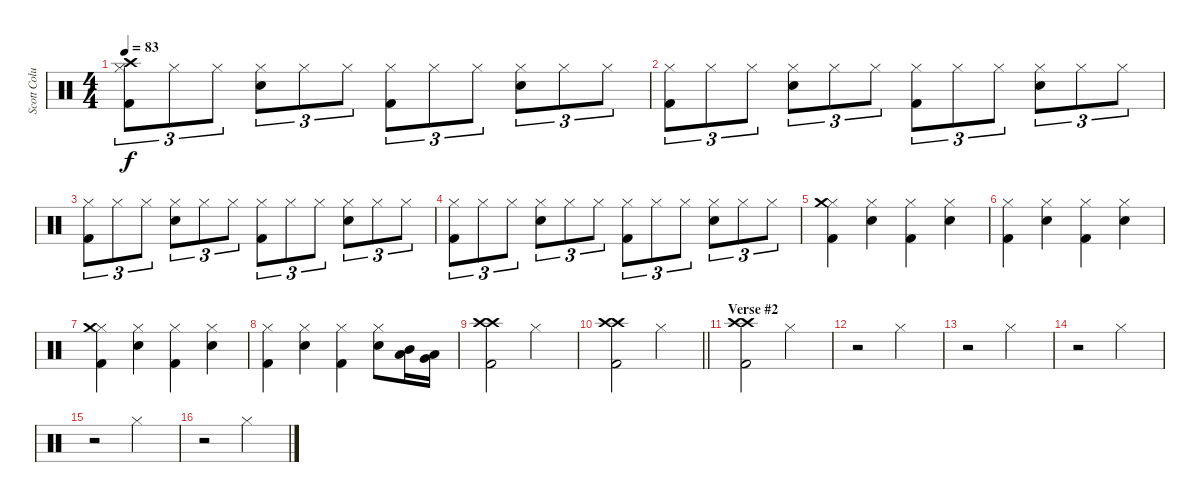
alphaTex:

\track ("Scott Columbus" "Scott Colu") {instrument percussion}
\staff {score}
\articulation defaults
\ts (4 4)
\tempo 83
\clef neutral
\ks c
("Kick (hit) 2" "Hi-Hat (closed)" "Crash high (hit)").8{tu (3 2) dy f} "Hi-Hat (closed)".8{tu (3 2)} "Hi-Hat (closed)".8{tu (3 2)} ("Electric Snare (hit)" "Hi-Hat (closed)").8{tu (3 2)} "Hi-Hat (closed)".8{tu (3 2)} "Hi-Hat (closed)".8{tu (3 2)} ("Kick (hit) 2" "Hi-Hat (closed)").8{tu (3 2)} "Hi-Hat (closed)".8{tu (3 2)} "Hi-Hat (closed)".8{tu (3 2)} ("Electric Snare (hit)" "Hi-Hat (closed)").8{tu (3 2)} "Hi-Hat (closed)".8{tu (3 2)} "Hi-Hat (closed)".8{tu (3 2)} |
("Kick (hit) 2" "Hi-Hat (closed)").8{tu (3 2)} "Hi-Hat (closed)".8{tu (3 2)} "Hi-Hat (closed)".8{tu (3 2)} ("Electric Snare (hit)" "Hi-Hat (closed)").8{tu (3 2)} "Hi-Hat (closed)".8{tu (3 2)} "Hi-Hat (closed)".8{tu (3 2)} ("Kick (hit) 2" "Hi-Hat (closed)").8{tu (3 2)} "Hi-Hat (closed)".8{tu (3 2)} "Hi-Hat (closed)".8{tu (3 2)} ("Electric Snare (hit)" "Hi-Hat (closed)").8{tu (3 2)} "Hi-Hat (closed)".8{tu (3 2)} "Hi-Hat (closed)".8{tu (3 2)} |
("Kick (hit) 2" "Hi-Hat (closed)").8{tu (3 2)} "Hi-Hat (closed)".8{tu (3 2)} "Hi-Hat (closed)".8{tu (3 2)} ("Electric Snare (hit)" "Hi-Hat (closed)").8{tu (3 2)} "Hi-Hat (closed)".8{tu (3 2)} "Hi-Hat (closed)".8{tu (3 2)} ("Kick (hit) 2" "Hi-Hat (closed)").8{tu (3 2)} "Hi-Hat (closed)".8{tu (3 2)} "Hi-Hat (closed)".8{tu (3 2)} ("Electric Snare (hit)" "Hi-Hat (closed)").8{tu (3 2)} "Hi-Hat (closed)".8{tu (3 2)} "Hi-Hat (closed)".8{tu (3 2)} |
("Kick (hit) 2" "Hi-Hat (closed)").8{tu (3 2)} "Hi-Hat (closed)".8{tu (3 2)} "Hi-Hat (closed)".8{tu (3 2)} ("Electric Snare (hit)" "Hi-Hat (closed)").8{tu (3 2)} "Hi-Hat (closed)".8{tu (3 2)} "Hi-Hat (closed)".8{tu (3 2)} ("Kick (hit) 2" "Hi-Hat (closed)").8{tu (3 2)} "Hi-Hat (closed)".8{tu (3 2)} "Hi-Hat (closed)".8{tu (3 2)} ("Electric Snare (hit)" "Hi-Hat (closed)").8{tu (3 2)} "Hi-Hat (closed)".8{tu (3 2)} "Hi-Hat (closed)".8{tu (3 2)} |
("Kick (hit) 2" "Hi-Hat (closed)" "Crash medium (hit)").4 ("Electric Snare (hit)" "Hi-Hat (closed)").4 ("Kick (hit) 2" "Hi-Hat (closed)").4 ("Electric Snare (hit)" "Hi-Hat (closed)").4 |
("Kick (hit) 2" "Hi-Hat (closed)").4 ("Electric Snare (hit)" "Hi-Hat (closed)").4 ("Kick (hit) 2" "Hi-Hat (closed)").4 ("Electric Snare (hit)" "Hi-Hat (closed)").4 |
("Kick (hit) 2" "Hi-Hat (closed)" "Crash medium (hit)").4 ("Electric Snare (hit)" "Hi-Hat (closed)").4 ("Kick (hit) 2" "Hi-Hat (closed)").4 ("Electric Snare (hit)" "Hi-Hat (closed)").4 |
("Kick (hit) 2" "Hi-Hat (closed)").4 ("Electric Snare (hit)" "Hi-Hat (closed)").4 ("Kick (hit) 2" "Hi-Hat (closed)").4 ("Electric Snare (hit)" "Hi-Hat (closed)").8 ("Mid Tom (hit)" "Low Tom (hit)").16 ("Low Tom (hit)" "Very Low Tom (hit)").16 |
("Kick (hit) 2" "Crash high (hit)" "Crash high (hit)").2 "Hi-Hat (closed)".2 |
\barLineRight lightlight
("Kick (hit) 2" "Crash high (hit)" "Crash high (hit)").2 "Hi-Hat (closed)".2 |
\section ("" "Verse #2")
("Kick (hit) 2" "Crash high (hit)" "Crash high (hit)").2 "Hi-Hat (closed)".2 |
r.2 "Hi-Hat (closed)".2 |
r.2 "Hi-Hat (closed)".2 |
r.2 "Hi-Hat (closed)".2 |
r.2 "Hi-Hat (closed)".2 |
r.2 "Hi-Hat (closed)".2
